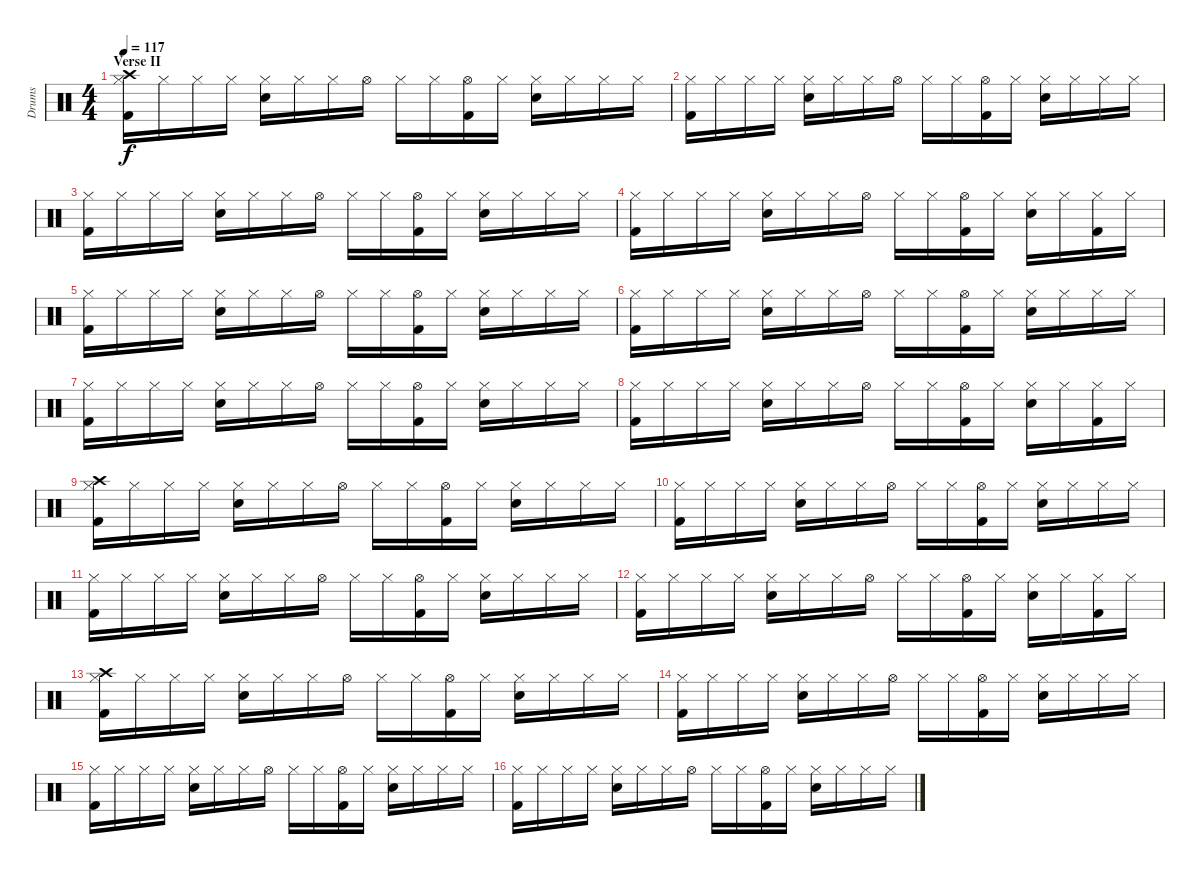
\track ("Drums" "Drums") {instrument percussion}
\staff {score}
\articulation defaults
\ts (4 4)
\section ("" "Verse II")
\tempo 117
\clef neutral
\ks c
("Hi-Hat (closed)" "Kick (hit) 2" "Crash high (hit)").16{dy f} "Hi-Hat (closed)".16 "Hi-Hat (closed)".16 "Hi-Hat (closed)".16 ("Hi-Hat (closed)" "Snare (hit) 2").16 "Hi-Hat (closed)".16 "Hi-Hat (closed)".16 "Hi-Hat (open)".16 "Hi-Hat (closed)".16 "Hi-Hat (closed)".16 ("Hi-Hat (open)" "Kick (hit) 2").16 "Hi-Hat (closed)".16 ("Hi-Hat (closed)" "Snare (hit) 2").16 "Hi-Hat (closed)".16 "Hi-Hat (closed)".16 "Hi-Hat (closed)".16 |
("Hi-Hat (closed)" "Kick (hit) 2").16 "Hi-Hat (closed)".16 "Hi-Hat (closed)".16 "Hi-Hat (closed)".16 ("Hi-Hat (closed)" "Snare (hit) 2").16 "Hi-Hat (closed)".16 "Hi-Hat (closed)".16 "Hi-Hat (open)".16 "Hi-Hat (closed)".16 "Hi-Hat (closed)".16 ("Hi-Hat (open)" "Kick (hit) 2").16 "Hi-Hat (closed)".16 ("Hi-Hat (closed)" "Snare (hit) 2").16 "Hi-Hat (closed)".16 "Hi-Hat (closed)".16 "Hi-Hat (closed)".16 |
("Hi-Hat (closed)" "Kick (hit) 2").16 "Hi-Hat (closed)".16 "Hi-Hat (closed)".16 "Hi-Hat (closed)".16 ("Hi-Hat (closed)" "Snare (hit) 2").16 "Hi-Hat (closed)".16 "Hi-Hat (closed)".16 "Hi-Hat (open)".16 "Hi-Hat (closed)".16 "Hi-Hat (closed)".16 ("Hi-Hat (open)" "Kick (hit) 2").16 "Hi-Hat (closed)".16 ("Hi-Hat (closed)" "Snare (hit) 2").16 "Hi-Hat (closed)".16 "Hi-Hat (closed)".16 "Hi-Hat (closed)".16 |
("Hi-Hat (closed)" "Kick (hit) 2").16 "Hi-Hat (closed)".16 "Hi-Hat (closed)".16 "Hi-Hat (closed)".16 ("Hi-Hat (closed)" "Snare (hit) 2").16 "Hi-Hat (closed)".16 "Hi-Hat (closed)".16 "Hi-Hat (open)".16 "Hi-Hat (closed)".16 "Hi-Hat (closed)".16 ("Hi-Hat (open)" "Kick (hit) 2").16 "Hi-Hat (closed)".16 ("Hi-Hat (closed)" "Snare (hit) 2").16 "Hi-Hat (closed)".16 ("Hi-Hat (closed)" "Kick (hit) 2").16 "Hi-Hat (closed)".16 |
("Hi-Hat (closed)" "Kick (hit) 2").16 "Hi-Hat (closed)".16 "Hi-Hat (closed)".16 "Hi-Hat (closed)".16 ("Hi-Hat (closed)" "Snare (hit) 2").16 "Hi-Hat (closed)".16 "Hi-Hat (closed)".16 "Hi-Hat (open)".16 "Hi-Hat (closed)".16 "Hi-Hat (closed)".16 ("Hi-Hat (open)" "Kick (hit) 2").16 "Hi-Hat (closed)".16 ("Hi-Hat (closed)" "Snare (hit) 2").16 "Hi-Hat (closed)".16 "Hi-Hat (closed)".16 "Hi-Hat (closed)".16 |
("Hi-Hat (closed)" "Kick (hit) 2").16 "Hi-Hat (closed)".16 "Hi-Hat (closed)".16 "Hi-Hat (closed)".16 ("Hi-Hat (closed)" "Snare (hit) 2").16 "Hi-Hat (closed)".16 "Hi-Hat (closed)".16 "Hi-Hat (open)".16 "Hi-Hat (closed)".16 "Hi-Hat (closed)".16 ("Hi-Hat (open)" "Kick (hit) 2").16 "Hi-Hat (closed)".16 ("Hi-Hat (closed)" "Snare (hit) 2").16 "Hi-Hat (closed)".16 "Hi-Hat (closed)".16 "Hi-Hat (closed)".16 |
("Hi-Hat (closed)" "Kick (hit) 2").16 "Hi-Hat (closed)".16 "Hi-Hat (closed)".16 "Hi-Hat (closed)".16 ("Hi-Hat (closed)" "Snare (hit) 2").16 "Hi-Hat (closed)".16 "Hi-Hat (closed)".16 "Hi-Hat (open)".16 "Hi-Hat (closed)".16 "Hi-Hat (closed)".16 ("Hi-Hat (open)" "Kick (hit) 2").16 "Hi-Hat (closed)".16 ("Hi-Hat (closed)" "Snare (hit) 2").16 "Hi-Hat (closed)".16 "Hi-Hat (closed)".16 "Hi-Hat (closed)".16 |
("Hi-Hat (closed)" "Kick (hit) 2").16 "Hi-Hat (closed)".16 "Hi-Hat (closed)".16 "Hi-Hat (closed)".16 ("Hi-Hat (closed)" "Snare (hit) 2").16 "Hi-Hat (closed)".16 "Hi-Hat (closed)".16 "Hi-Hat (open)".16 "Hi-Hat (closed)".16 "Hi-Hat (closed)".16 ("Hi-Hat (open)" "Kick (hit) 2").16 "Hi-Hat (closed)".16 ("Hi-Hat (closed)" "Snare (hit) 2").16 "Hi-Hat (closed)".16 ("Hi-Hat (closed)" "Kick (hit) 2").16 "Hi-Hat (closed)".16 |
("Hi-Hat (closed)" "Kick (hit) 2" "Crash high (hit)").16 "Hi-Hat (closed)".16 "Hi-Hat (closed)".16 "Hi-Hat (closed)".16 ("Hi-Hat (closed)" "Snare (hit) 2").16 "Hi-Hat (closed)".16 "Hi-Hat (closed)".16 "Hi-Hat (open)".16 "Hi-Hat (closed)".16 "Hi-Hat (closed)".16 ("Hi-Hat (open)" "Kick (hit) 2").16 "Hi-Hat (closed)".16 ("Hi-Hat (closed)" "Snare (hit) 2").16 "Hi-Hat (closed)".16 "Hi-Hat (closed)".16 "Hi-Hat (closed)".16 |
("Hi-Hat (closed)" "Kick (hit) 2").16 "Hi-Hat (closed)".16 "Hi-Hat (closed)".16 "Hi-Hat (closed)".16 ("Hi-Hat (closed)" "Snare (hit) 2").16 "Hi-Hat (closed)".16 "Hi-Hat (closed)".16 "Hi-Hat (open)".16 "Hi-Hat (closed)".16 "Hi-Hat (closed)".16 ("Hi-Hat (open)" "Kick (hit) 2").16 "Hi-Hat (closed)".16 ("Hi-Hat (closed)" "Snare (hit) 2").16 "Hi-Hat (closed)".16 "Hi-Hat (closed)".16 "Hi-Hat (closed)".16 |
("Hi-Hat (closed)" "Kick (hit) 2").16 "Hi-Hat (closed)".16 "Hi-Hat (closed)".16 "Hi-Hat (closed)".16 ("Hi-Hat (closed)" "Snare (hit) 2").16 "Hi-Hat (closed)".16 "Hi-Hat (closed)".16 "Hi-Hat (open)".16 "Hi-Hat (closed)".16 "Hi-Hat (closed)".16 ("Hi-Hat (open)" "Kick (hit) 2").16 "Hi-Hat (closed)".16 ("Hi-Hat (closed)" "Snare (hit) 2").16 "Hi-Hat (closed)".16 "Hi-Hat (closed)".16 "Hi-Hat (closed)".16 |
("Hi-Hat (closed)" "Kick (hit) 2").16 "Hi-Hat (closed)".16 "Hi-Hat (closed)".16 "Hi-Hat (closed)".16 ("Hi-Hat (closed)" "Snare (hit) 2").16 "Hi-Hat (closed)".16 "Hi-Hat (closed)".16 "Hi-Hat (open)".16 "Hi-Hat (closed)".16 "Hi-Hat (closed)".16 ("Hi-Hat (open)" "Kick (hit) 2").16 "Hi-Hat (closed)".16 ("Hi-Hat (closed)" "Snare (hit) 2").16 "Hi-Hat (closed)".16 ("Hi-Hat (closed)" "Kick (hit) 2").16 "Hi-Hat (closed)".16 |
("Hi-Hat (closed)" "Kick (hit) 2" "Crash high (hit)").16 "Hi-Hat (closed)".16 "Hi-Hat (closed)".16 "Hi-Hat (closed)".16 ("Hi-Hat (closed)" "Snare (hit) 2").16 "Hi-Hat (closed)".16 "Hi-Hat (closed)".16 "Hi-Hat (open)".16 "Hi-Hat (closed)".16 "Hi-Hat (closed)".16 ("Hi-Hat (open)" "Kick (hit) 2").16 "Hi-Hat (closed)".16 ("Hi-Hat (closed)" "Snare (hit) 2").16 "Hi-Hat (closed)".16 "Hi-Hat (closed)".16 "Hi-Hat (closed)".16 |
("Hi-Hat (closed)" "Kick (hit) 2").16 "Hi-Hat (closed)".16 "Hi-Hat (closed)".16 "Hi-Hat (closed)".16 ("Hi-Hat (closed)" "Snare (hit) 2").16 "Hi-Hat (closed)".16 "Hi-Hat (closed)".16 "Hi-Hat (open)".16 "Hi-Hat (closed)".16 "Hi-Hat (closed)".16 ("Hi-Hat (open)" "Kick (hit) 2").16 "Hi-Hat (closed)".16 ("Hi-Hat (closed)" "Snare (hit) 2").16 "Hi-Hat (closed)".16 "Hi-Hat (closed)".16 "Hi-Hat (closed)".16 |
("Hi-Hat (closed)" "Kick (hit) 2").16 "Hi-Hat (closed)".16 "Hi-Hat (closed)".16 "Hi-Hat (closed)".16 ("Hi-Hat (closed)" "Snare (hit) 2").16 "Hi-Hat (closed)".16 "Hi-Hat (closed)".16 "Hi-Hat (open)".16 "Hi-Hat (closed)".16 "Hi-Hat (closed)".16 ("Hi-Hat (open)" "Kick (hit) 2").16 "Hi-Hat (closed)".16 ("Hi-Hat (closed)" "Snare (hit) 2").16 "Hi-Hat (closed)".16 "Hi-Hat (closed)".16 "Hi-Hat (closed)".16 |
("Hi-Hat (closed)" "Kick (hit) 2").16 "Hi-Hat (closed)".16 "Hi-Hat (closed)".16 "Hi-Hat (closed)".16 ("Hi-Hat (closed)" "Snare (hit) 2").16 "Hi-Hat (closed)".16 "Hi-Hat (closed)".16 "Hi-Hat (open)".16 "Hi-Hat (closed)".16 "Hi-Hat (closed)".16 ("Hi-Hat (open)" "Kick (hit) 2").16 "Hi-Hat (closed)".16 ("Hi-Hat (closed)" "Snare (hit) 2").16 "Hi-Hat (closed)".16 "Hi-Hat (closed)".16 "Hi-Hat (closed)".16
